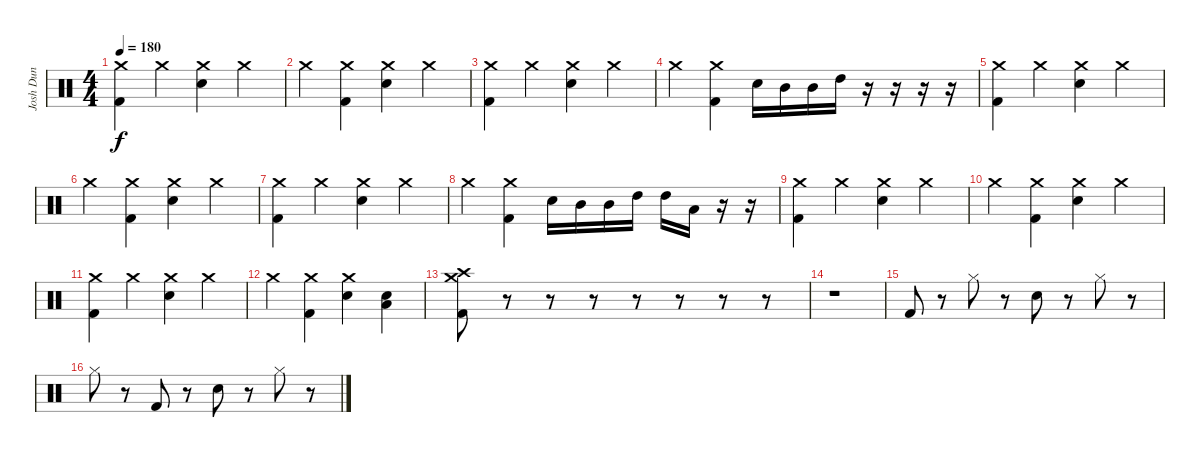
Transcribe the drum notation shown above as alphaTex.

\track ("Josh Dun" "Josh Dun") {instrument percussion}
\staff {score}
\articulation defaults
\ts (4 4)
\tempo 180
\clef neutral
\ks c
("Crash medium (hit)" "Kick (hit) 2").4{dy f} "Crash medium (hit)".4 ("Crash medium (hit)" "Snare (hit) 2").4 "Crash medium (hit)".4 |
"Crash medium (hit)".4 ("Crash medium (hit)" "Kick (hit) 2").4 ("Crash medium (hit)" "Snare (hit) 2").4 "Crash medium (hit)".4 |
("Crash medium (hit)" "Kick (hit) 2").4 "Crash medium (hit)".4 ("Crash medium (hit)" "Snare (hit) 2").4 "Crash medium (hit)".4 |
"Crash medium (hit)".4 ("Crash medium (hit)" "Kick (hit) 2").4 "Snare (hit) 2".16 "Mid Tom (hit)".16 "Mid Tom (hit)".16 "High Tom (hit)".16 r.16 r.16 r.16 r.16 |
("Crash medium (hit)" "Kick (hit) 2").4 "Crash medium (hit)".4 ("Crash medium (hit)" "Snare (hit) 2").4 "Crash medium (hit)".4 |
"Crash medium (hit)".4 ("Crash medium (hit)" "Kick (hit) 2").4 ("Crash medium (hit)" "Snare (hit) 2").4 "Crash medium (hit)".4 |
("Crash medium (hit)" "Kick (hit) 2").4 "Crash medium (hit)".4 ("Crash medium (hit)" "Snare (hit) 2").4 "Crash medium (hit)".4 |
"Crash medium (hit)".4 ("Crash medium (hit)" "Kick (hit) 2").4 "Snare (hit) 2".16 "Mid Tom (hit)".16 "Mid Tom (hit)".16 "High Tom (hit)".16 "High Tom (hit)".16 "Low Floor Tom (hit)".16 r.16 r.16 |
("Crash medium (hit)" "Kick (hit) 2").4 "Crash medium (hit)".4 ("Crash medium (hit)" "Snare (hit) 2").4 "Crash medium (hit)".4 |
"Crash medium (hit)".4 ("Crash medium (hit)" "Kick (hit) 2").4 ("Crash medium (hit)" "Snare (hit) 2").4 "Crash medium (hit)".4 |
("Crash medium (hit)" "Kick (hit) 2").4 "Crash medium (hit)".4 ("Crash medium (hit)" "Snare (hit) 2").4 "Crash medium (hit)".4 |
"Crash medium (hit)".4 ("Crash medium (hit)" "Kick (hit) 2").4 ("Crash medium (hit)" "Snare (hit) 2").4 ("Snare (hit) 2" "Low Floor Tom (hit)").4 |
("Crash high (hit)" "Crash medium (hit)" "Kick (hit) 2").8 r.8 r.8 r.8 r.8 r.8 r.8 r.8 |
r.1 |
"Kick (hit) 2".8 r.8 "Hi-Hat (closed)".8 r.8 "Snare (hit) 2".8 r.8 "Hi-Hat (closed)".8 r.8 |
"Hi-Hat (closed)".8 r.8 "Kick (hit) 2".8 r.8 "Snare (hit) 2".8 r.8 "Hi-Hat (closed)".8 r.8
